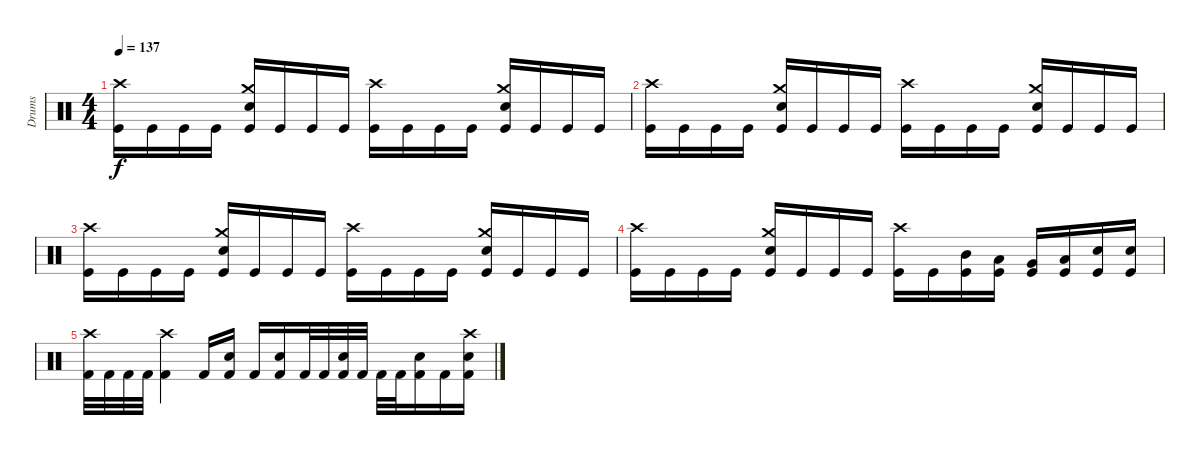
\track ("Drums" "Drums") {instrument percussion}
\staff
\articulation defaults
\ts (4 4)
\tempo 137
\clef neutral
\ks c
("Crash high (hit)" "Kick (hit)").16{dy f} "Kick (hit)".16 "Kick (hit)".16 "Kick (hit)".16 ("Crash medium (hit)" "Electric Snare (hit)" "Kick (hit)").16 "Kick (hit)".16 "Kick (hit)".16 "Kick (hit)".16 ("Crash high (hit)" "Kick (hit)").16 "Kick (hit)".16 "Kick (hit)".16 "Kick (hit)".16 ("Crash medium (hit)" "Electric Snare (hit)" "Kick (hit)").16 "Kick (hit)".16 "Kick (hit)".16 "Kick (hit)".16 |
("Crash high (hit)" "Kick (hit)").16 "Kick (hit)".16 "Kick (hit)".16 "Kick (hit)".16 ("Crash medium (hit)" "Electric Snare (hit)" "Kick (hit)").16 "Kick (hit)".16 "Kick (hit)".16 "Kick (hit)".16 ("Crash high (hit)" "Kick (hit)").16 "Kick (hit)".16 "Kick (hit)".16 "Kick (hit)".16 ("Crash medium (hit)" "Electric Snare (hit)" "Kick (hit)").16 "Kick (hit)".16 "Kick (hit)".16 "Kick (hit)".16 |
("Crash high (hit)" "Kick (hit)").16 "Kick (hit)".16 "Kick (hit)".16 "Kick (hit)".16 ("Crash medium (hit)" "Electric Snare (hit)" "Kick (hit)").16 "Kick (hit)".16 "Kick (hit)".16 "Kick (hit)".16 ("Crash high (hit)" "Kick (hit)").16 "Kick (hit)".16 "Kick (hit)".16 "Kick (hit)".16 ("Crash medium (hit)" "Electric Snare (hit)" "Kick (hit)").16 "Kick (hit)".16 "Kick (hit)".16 "Kick (hit)".16 |
("Crash high (hit)" "Kick (hit)").16 "Kick (hit)".16 "Kick (hit)".16 "Kick (hit)".16 ("Crash medium (hit)" "Electric Snare (hit)" "Kick (hit)").16 "Kick (hit)".16 "Kick (hit)".16 "Kick (hit)".16 ("Crash high (hit)" "Kick (hit)").16 "Kick (hit)".16 ("Mid Tom (hit)" "Kick (hit)").16 ("Low Tom (hit)" "Kick (hit)").16 ("Very Low Tom (hit)" "Kick (hit)").16 ("Low Floor Tom (hit)" "Kick (hit)").16 ("Electric Snare (hit)" "Kick (hit)").16 ("Electric Snare (hit)" "Kick (hit)").16 |
("Crash high (hit)" "Kick (hit) 2").32 "Kick (hit) 2".32 "Kick (hit) 2".32 "Kick (hit) 2".32 ("Crash high (hit)" "Kick (hit) 2").4 "Kick (hit) 2".16 ("Electric Snare (hit)" "Kick (hit) 2").16 "Kick (hit) 2".16 ("Electric Snare (hit)" "Kick (hit) 2").16 "Kick (hit) 2".32 "Kick (hit) 2".32 ("Electric Snare (hit)" "Kick (hit) 2").32 "Kick (hit) 2".32 "Kick (hit) 2".32 "Kick (hit) 2".32 ("Electric Snare (hit)" "Kick (hit) 2").16 "Kick (hit) 2".16 ("Crash high (hit)" "Electric Snare (hit)" "Kick (hit) 2").16
